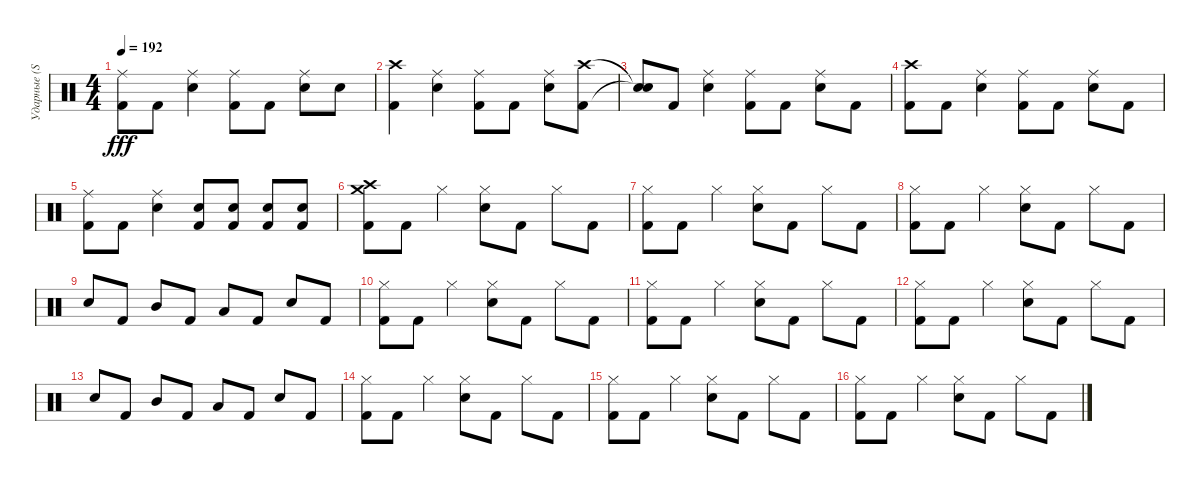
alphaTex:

\track ("Ударные (Steve Jocz)" "Ударные (S") {instrument percussion}
\staff {score}
\articulation defaults
\ts (4 4)
\tempo 192
\clef neutral
\ks c
("Ride (middle)" "Kick (hit) 2").8{dy fff} "Kick (hit) 2".8 ("Ride (middle)" "Electric Snare (hit)").4 ("Ride (middle)" "Kick (hit) 2").8 "Kick (hit) 2".8 ("Ride (middle)" "Electric Snare (hit)").8 "Electric Snare (hit)".8 |
("Crash high (hit)" "Kick (hit) 2").4 ("Ride (middle)" "Electric Snare (hit)").4 ("Ride (middle)" "Kick (hit) 2").8 "Kick (hit) 2".8 ("Ride (middle)" "Electric Snare (hit)").8 ("Crash high (hit)" "Kick (hit) 2").8 |
("Snare (hit)"{t} "Snare (hit)"{t}).8 "Kick (hit) 2".8 ("Ride (middle)" "Electric Snare (hit)").4 ("Ride (middle)" "Kick (hit) 2").8 "Kick (hit) 2".8 ("Ride (middle)" "Electric Snare (hit)").8 "Kick (hit) 2".8 |
("Crash high (hit)" "Kick (hit) 2").8 "Kick (hit) 2".8 ("Ride (middle)" "Electric Snare (hit)").4 ("Ride (middle)" "Kick (hit) 2").8 "Kick (hit) 2".8 ("Ride (middle)" "Electric Snare (hit)").8 "Kick (hit) 2".8 |
("Ride (middle)" "Kick (hit) 2").8 "Kick (hit) 2".8 ("Ride (middle)" "Electric Snare (hit)").4 ("Electric Snare (hit)" "Kick (hit) 2").8 ("Electric Snare (hit)" "Kick (hit) 2").8 ("Electric Snare (hit)" "Kick (hit) 2").8 ("Electric Snare (hit)" "Kick (hit) 2").8 |
("Crash high (hit)" "Crash medium (hit)" "Kick (hit) 2").8 "Kick (hit) 2".8 "Hi-Hat (closed)".4 ("Hi-Hat (closed)" "Electric Snare (hit)").8 "Kick (hit) 2".8 "Hi-Hat (closed)".8 "Kick (hit) 2".8 |
("Hi-Hat (closed)" "Kick (hit) 2").8 "Kick (hit) 2".8 "Hi-Hat (closed)".4 ("Hi-Hat (closed)" "Electric Snare (hit)").8 "Kick (hit) 2".8 "Hi-Hat (closed)".8 "Kick (hit) 2".8 |
("Hi-Hat (closed)" "Kick (hit) 2").8 "Kick (hit) 2".8 "Hi-Hat (closed)".4 ("Hi-Hat (closed)" "Electric Snare (hit)").8 "Kick (hit) 2".8 "Hi-Hat (closed)".8 "Kick (hit) 2".8 |
"Electric Snare (hit)".8 "Kick (hit) 2".8 "Mid Tom (hit)".8 "Kick (hit) 2".8 "Low Tom (hit)".8 "Kick (hit) 2".8 "Electric Snare (hit)".8 "Kick (hit) 2".8 |
("Hi-Hat (closed)" "Kick (hit) 2").8 "Kick (hit) 2".8 "Hi-Hat (closed)".4 ("Hi-Hat (closed)" "Electric Snare (hit)").8 "Kick (hit) 2".8 "Hi-Hat (closed)".8 "Kick (hit) 2".8 |
("Hi-Hat (closed)" "Kick (hit) 2").8 "Kick (hit) 2".8 "Hi-Hat (closed)".4 ("Hi-Hat (closed)" "Electric Snare (hit)").8 "Kick (hit) 2".8 "Hi-Hat (closed)".8 "Kick (hit) 2".8 |
("Hi-Hat (closed)" "Kick (hit) 2").8 "Kick (hit) 2".8 "Hi-Hat (closed)".4 ("Hi-Hat (closed)" "Electric Snare (hit)").8 "Kick (hit) 2".8 "Hi-Hat (closed)".8 "Kick (hit) 2".8 |
"Electric Snare (hit)".8 "Kick (hit) 2".8 "Mid Tom (hit)".8 "Kick (hit) 2".8 "Low Tom (hit)".8 "Kick (hit) 2".8 "Electric Snare (hit)".8 "Kick (hit) 2".8 |
("Hi-Hat (closed)" "Kick (hit) 2").8 "Kick (hit) 2".8 "Hi-Hat (closed)".4 ("Hi-Hat (closed)" "Electric Snare (hit)").8 "Kick (hit) 2".8 "Hi-Hat (closed)".8 "Kick (hit) 2".8 |
("Hi-Hat (closed)" "Kick (hit) 2").8 "Kick (hit) 2".8 "Hi-Hat (closed)".4 ("Hi-Hat (closed)" "Electric Snare (hit)").8 "Kick (hit) 2".8 "Hi-Hat (closed)".8 "Kick (hit) 2".8 |
("Hi-Hat (closed)" "Kick (hit) 2").8 "Kick (hit) 2".8 "Hi-Hat (closed)".4 ("Hi-Hat (closed)" "Electric Snare (hit)").8 "Kick (hit) 2".8 "Hi-Hat (closed)".8 "Kick (hit) 2".8
